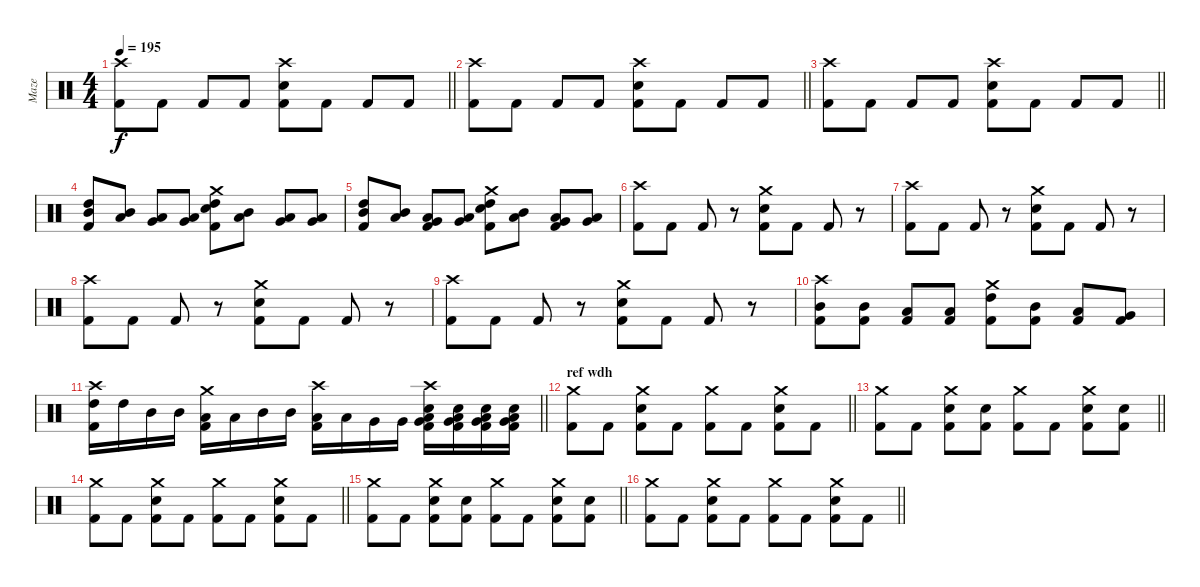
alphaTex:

\track ("Maze" "Maze") {instrument percussion}
\staff
\articulation defaults
\ts (4 4)
\tempo 195
\clef neutral
\barLineRight lightlight
\ks c
("Crash high (hit)" "Kick (hit) 2").8{dy f} "Kick (hit) 2".8 "Kick (hit) 2".8 "Kick (hit) 2".8 ("Snare (hit) 2" "Crash high (hit)" "Kick (hit) 2").8 "Kick (hit) 2".8 "Kick (hit) 2".8 "Kick (hit) 2".8 |
\barLineRight lightlight
("Crash high (hit)" "Kick (hit) 2").8 "Kick (hit) 2".8 "Kick (hit) 2".8 "Kick (hit) 2".8 ("Snare (hit) 2" "Crash high (hit)" "Kick (hit) 2").8 "Kick (hit) 2".8 "Kick (hit) 2".8 "Kick (hit) 2".8 |
\barLineRight lightlight
("Crash high (hit)" "Kick (hit) 2").8 "Kick (hit) 2".8 "Kick (hit) 2".8 "Kick (hit) 2".8 ("Snare (hit) 2" "Crash high (hit)" "Kick (hit) 2").8 "Kick (hit) 2".8 "Kick (hit) 2".8 "Kick (hit) 2".8 |
("High Tom (hit)" "Mid Tom (hit)" "Kick (hit) 2").8 ("Mid Tom (hit)" "Low Tom (hit)").8 ("Low Tom (hit)" "Very Low Tom (hit)").8 ("Very Low Tom (hit)" "Low Floor Tom (hit)").8 ("Crash medium (hit)" "High Tom (hit)" "Snare (hit) 2" "Kick (hit) 2").8 ("Mid Tom (hit)" "Low Tom (hit)").8 ("Low Tom (hit)" "Very Low Tom (hit)").8 ("Very Low Tom (hit)" "Low Floor Tom (hit)").8 |
("High Tom (hit)" "Mid Tom (hit)" "Kick (hit) 2").8 ("Mid Tom (hit)" "Low Tom (hit)").8 ("Low Tom (hit)" "Very Low Tom (hit)" "Kick (hit) 2").8 ("Very Low Tom (hit)" "Low Floor Tom (hit)").8 ("Crash medium (hit)" "High Tom (hit)" "Snare (hit) 2" "Kick (hit) 2").8 ("Mid Tom (hit)" "Low Tom (hit)").8 ("Low Tom (hit)" "Very Low Tom (hit)" "Kick (hit) 2").8 ("Very Low Tom (hit)" "Low Floor Tom (hit)").8 |
("Crash high (hit)" "Kick (hit) 2").8 "Kick (hit) 2".8 "Kick (hit) 2".8 r.8 ("Snare (hit) 2" "Crash medium (hit)" "Kick (hit) 2").8 "Kick (hit) 2".8 "Kick (hit) 2".8 r.8 |
("Crash high (hit)" "Kick (hit) 2").8 "Kick (hit) 2".8 "Kick (hit) 2".8 r.8 ("Snare (hit) 2" "Crash medium (hit)" "Kick (hit) 2").8 "Kick (hit) 2".8 "Kick (hit) 2".8 r.8 |
("Crash high (hit)" "Kick (hit) 2").8 "Kick (hit) 2".8 "Kick (hit) 2".8 r.8 ("Snare (hit) 2" "Crash medium (hit)" "Kick (hit) 2").8 "Kick (hit) 2".8 "Kick (hit) 2".8 r.8 |
("Crash high (hit)" "Kick (hit) 2").8 "Kick (hit) 2".8 "Kick (hit) 2".8 r.8 ("Snare (hit) 2" "Crash medium (hit)" "Kick (hit) 2").8 "Kick (hit) 2".8 "Kick (hit) 2".8 r.8 |
("Crash high (hit)" "Mid Tom (hit)" "Kick (hit) 2").8 ("Mid Tom (hit)" "Kick (hit) 2").8 ("Low Tom (hit)" "Kick (hit) 2").8 ("Low Tom (hit)" "Kick (hit) 2").8 ("Crash medium (hit)" "High Tom (hit)" "Kick (hit) 2").8 ("Mid Tom (hit)" "Kick (hit) 2").8 ("Low Tom (hit)" "Kick (hit) 2").8 ("Very Low Tom (hit)" "Kick (hit) 2").8 |
\barLineRight lightlight
("Crash high (hit)" "High Tom (hit)" "Kick (hit) 2").16 "High Tom (hit)".16 "Mid Tom (hit)".16 "Mid Tom (hit)".16 ("Crash medium (hit)" "Low Tom (hit)" "Kick (hit) 2").16 "Low Tom (hit)".16 "Mid Tom (hit)".16 "Mid Tom (hit)".16 ("Crash high (hit)" "Low Tom (hit)" "Kick (hit) 2").16 "Low Tom (hit)".16 "Very Low Tom (hit)".16 "Very Low Tom (hit)".16 ("Crash high (hit)" "Snare (hit) 2" "Low Tom (hit)" "Very Low Tom (hit)" "Kick (hit) 2").16 ("Snare (hit) 2" "Low Tom (hit)" "Very Low Tom (hit)" "Kick (hit) 2").16 ("Snare (hit) 2" "Low Tom (hit)" "Very Low Tom (hit)" "Kick (hit) 2").16 ("Snare (hit) 2" "Low Tom (hit)" "Very Low Tom (hit)" "Kick (hit) 2").16 |
\section ("" "ref wdh")
\barLineRight lightlight
("Crash medium (hit)" "Kick (hit) 2").8 "Kick (hit) 2".8 ("Snare (hit) 2" "Crash medium (hit)" "Kick (hit) 2").8 "Kick (hit) 2".8 ("Crash medium (hit)" "Kick (hit) 2").8 "Kick (hit) 2".8 ("Snare (hit) 2" "Crash medium (hit)" "Kick (hit) 2").8 "Kick (hit) 2".8 |
\barLineRight lightlight
("Crash medium (hit)" "Kick (hit) 2").8 "Kick (hit) 2".8 ("Snare (hit) 2" "Crash medium (hit)" "Kick (hit) 2").8 ("Snare (hit) 2" "Kick (hit) 2").8 ("Crash medium (hit)" "Kick (hit) 2").8 "Kick (hit) 2".8 ("Snare (hit) 2" "Crash medium (hit)" "Kick (hit) 2").8 ("Snare (hit) 2" "Kick (hit) 2").8 |
\barLineRight lightlight
("Crash medium (hit)" "Kick (hit) 2").8 "Kick (hit) 2".8 ("Snare (hit) 2" "Crash medium (hit)" "Kick (hit) 2").8 "Kick (hit) 2".8 ("Crash medium (hit)" "Kick (hit) 2").8 "Kick (hit) 2".8 ("Snare (hit) 2" "Crash medium (hit)" "Kick (hit) 2").8 "Kick (hit) 2".8 |
\barLineRight lightlight
("Crash medium (hit)" "Kick (hit) 2").8 "Kick (hit) 2".8 ("Snare (hit) 2" "Crash medium (hit)" "Kick (hit) 2").8 ("Snare (hit) 2" "Kick (hit) 2").8 ("Crash medium (hit)" "Kick (hit) 2").8 "Kick (hit) 2".8 ("Snare (hit) 2" "Crash medium (hit)" "Kick (hit) 2").8 ("Snare (hit) 2" "Kick (hit) 2").8 |
\barLineRight lightlight
("Crash medium (hit)" "Kick (hit) 2").8 "Kick (hit) 2".8 ("Snare (hit) 2" "Crash medium (hit)" "Kick (hit) 2").8 "Kick (hit) 2".8 ("Crash medium (hit)" "Kick (hit) 2").8 "Kick (hit) 2".8 ("Snare (hit) 2" "Crash medium (hit)" "Kick (hit) 2").8 "Kick (hit) 2".8
